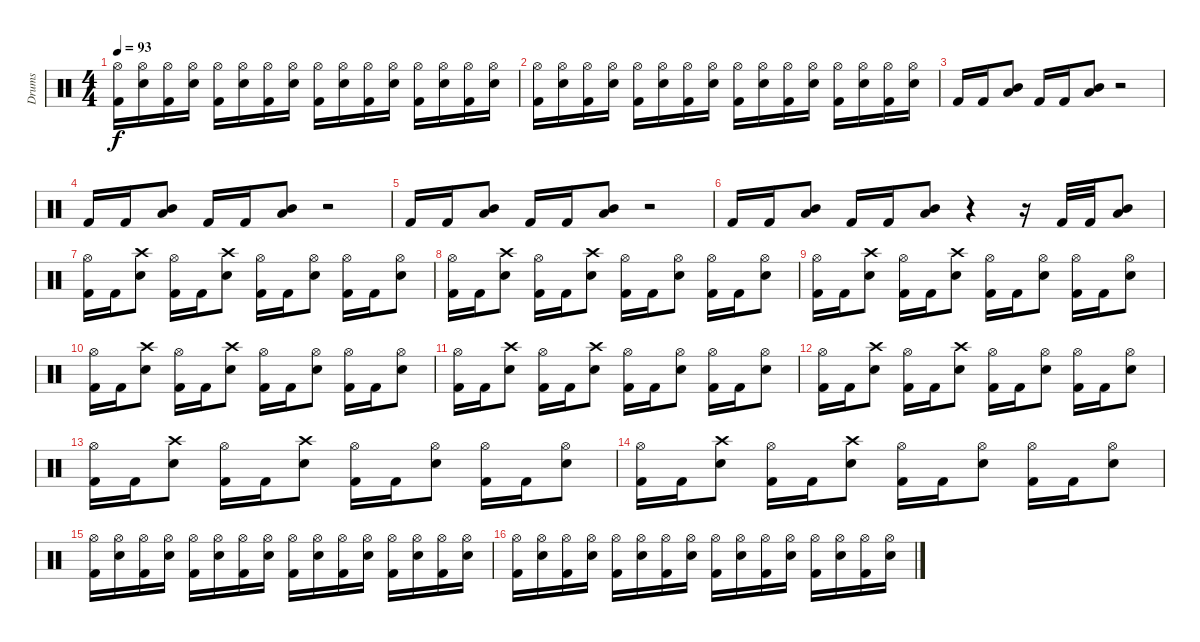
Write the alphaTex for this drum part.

\track ("Drums" "Drums") {instrument percussion}
\staff {score}
\articulation defaults
\ts (4 4)
\tempo 93
\clef neutral
\ks c
("Hi-Hat (open)" "Kick (hit) 2").16{dy f} ("Hi-Hat (open)" "Electric Snare (hit)").16 ("Hi-Hat (open)" "Kick (hit) 2").16 ("Hi-Hat (open)" "Electric Snare (hit)").16 ("Hi-Hat (open)" "Kick (hit) 2").16 ("Hi-Hat (open)" "Electric Snare (hit)").16 ("Hi-Hat (open)" "Kick (hit) 2").16 ("Hi-Hat (open)" "Electric Snare (hit)").16 ("Hi-Hat (open)" "Kick (hit) 2").16 ("Hi-Hat (open)" "Electric Snare (hit)").16 ("Hi-Hat (open)" "Kick (hit) 2").16 ("Hi-Hat (open)" "Electric Snare (hit)").16 ("Hi-Hat (open)" "Kick (hit) 2").16 ("Hi-Hat (open)" "Electric Snare (hit)").16 ("Hi-Hat (open)" "Kick (hit) 2").16 ("Hi-Hat (open)" "Electric Snare (hit)").16 |
("Hi-Hat (open)" "Kick (hit) 2").16 ("Hi-Hat (open)" "Electric Snare (hit)").16 ("Hi-Hat (open)" "Kick (hit) 2").16 ("Hi-Hat (open)" "Electric Snare (hit)").16 ("Hi-Hat (open)" "Kick (hit) 2").16 ("Hi-Hat (open)" "Electric Snare (hit)").16 ("Hi-Hat (open)" "Kick (hit) 2").16 ("Hi-Hat (open)" "Electric Snare (hit)").16 ("Hi-Hat (open)" "Kick (hit) 2").16 ("Hi-Hat (open)" "Electric Snare (hit)").16 ("Hi-Hat (open)" "Kick (hit) 2").16 ("Hi-Hat (open)" "Electric Snare (hit)").16 ("Hi-Hat (open)" "Kick (hit) 2").16 ("Hi-Hat (open)" "Electric Snare (hit)").16 ("Hi-Hat (open)" "Kick (hit) 2").16 ("Hi-Hat (open)" "Electric Snare (hit)").16 |
"Kick (hit) 2".16 "Kick (hit) 2".16 ("Mid Tom (hit)" "Low Tom (hit)").8 "Kick (hit) 2".16 "Kick (hit) 2".16 ("Mid Tom (hit)" "Low Tom (hit)").8 r.2 |
"Kick (hit) 2".16 "Kick (hit) 2".16 ("Mid Tom (hit)" "Low Tom (hit)").8 "Kick (hit) 2".16 "Kick (hit) 2".16 ("Mid Tom (hit)" "Low Tom (hit)").8 r.2 |
"Kick (hit) 2".16 "Kick (hit) 2".16 ("Mid Tom (hit)" "Low Tom (hit)").8 "Kick (hit) 2".16 "Kick (hit) 2".16 ("Mid Tom (hit)" "Low Tom (hit)").8 r.2 |
"Kick (hit) 2".16 "Kick (hit) 2".16 ("Mid Tom (hit)" "Low Tom (hit)").8 "Kick (hit) 2".16 "Kick (hit) 2".16 ("Mid Tom (hit)" "Low Tom (hit)").8 r.4 r.16 "Kick (hit) 2".32 "Kick (hit) 2".32 ("Mid Tom (hit)" "Low Tom (hit)").8 |
("Hi-Hat (open)" "Kick (hit) 2").16 "Kick (hit) 2".16 ("Crash high (hit)" "Electric Snare (hit)").8 ("Hi-Hat (open)" "Kick (hit) 2").16 "Kick (hit) 2".16 ("Crash high (hit)" "Electric Snare (hit)").8 ("Hi-Hat (open)" "Kick (hit) 2").16 "Kick (hit) 2".16 ("Hi-Hat (open)" "Electric Snare (hit)").8 ("Hi-Hat (open)" "Kick (hit) 2").16 "Kick (hit) 2".16 ("Hi-Hat (open)" "Electric Snare (hit)").8 |
("Hi-Hat (open)" "Kick (hit) 2").16 "Kick (hit) 2".16 ("Crash high (hit)" "Electric Snare (hit)").8 ("Hi-Hat (open)" "Kick (hit) 2").16 "Kick (hit) 2".16 ("Crash high (hit)" "Electric Snare (hit)").8 ("Hi-Hat (open)" "Kick (hit) 2").16 "Kick (hit) 2".16 ("Hi-Hat (open)" "Electric Snare (hit)").8 ("Hi-Hat (open)" "Kick (hit) 2").16 "Kick (hit) 2".16 ("Hi-Hat (open)" "Electric Snare (hit)").8 |
("Hi-Hat (open)" "Kick (hit) 2").16 "Kick (hit) 2".16 ("Crash high (hit)" "Electric Snare (hit)").8 ("Hi-Hat (open)" "Kick (hit) 2").16 "Kick (hit) 2".16 ("Crash high (hit)" "Electric Snare (hit)").8 ("Hi-Hat (open)" "Kick (hit) 2").16 "Kick (hit) 2".16 ("Hi-Hat (open)" "Electric Snare (hit)").8 ("Hi-Hat (open)" "Kick (hit) 2").16 "Kick (hit) 2".16 ("Hi-Hat (open)" "Electric Snare (hit)").8 |
("Hi-Hat (open)" "Kick (hit) 2").16 "Kick (hit) 2".16 ("Crash high (hit)" "Electric Snare (hit)").8 ("Hi-Hat (open)" "Kick (hit) 2").16 "Kick (hit) 2".16 ("Crash high (hit)" "Electric Snare (hit)").8 ("Hi-Hat (open)" "Kick (hit) 2").16 "Kick (hit) 2".16 ("Hi-Hat (open)" "Electric Snare (hit)").8 ("Hi-Hat (open)" "Kick (hit) 2").16 "Kick (hit) 2".16 ("Hi-Hat (open)" "Electric Snare (hit)").8 |
("Hi-Hat (open)" "Kick (hit) 2").16 "Kick (hit) 2".16 ("Crash high (hit)" "Electric Snare (hit)").8 ("Hi-Hat (open)" "Kick (hit) 2").16 "Kick (hit) 2".16 ("Crash high (hit)" "Electric Snare (hit)").8 ("Hi-Hat (open)" "Kick (hit) 2").16 "Kick (hit) 2".16 ("Hi-Hat (open)" "Electric Snare (hit)").8 ("Hi-Hat (open)" "Kick (hit) 2").16 "Kick (hit) 2".16 ("Hi-Hat (open)" "Electric Snare (hit)").8 |
("Hi-Hat (open)" "Kick (hit) 2").16 "Kick (hit) 2".16 ("Crash high (hit)" "Electric Snare (hit)").8 ("Hi-Hat (open)" "Kick (hit) 2").16 "Kick (hit) 2".16 ("Crash high (hit)" "Electric Snare (hit)").8 ("Hi-Hat (open)" "Kick (hit) 2").16 "Kick (hit) 2".16 ("Hi-Hat (open)" "Electric Snare (hit)").8 ("Hi-Hat (open)" "Kick (hit) 2").16 "Kick (hit) 2".16 ("Hi-Hat (open)" "Electric Snare (hit)").8 |
("Hi-Hat (open)" "Kick (hit) 2").16 "Kick (hit) 2".16 ("Crash high (hit)" "Electric Snare (hit)").8 ("Hi-Hat (open)" "Kick (hit) 2").16 "Kick (hit) 2".16 ("Crash high (hit)" "Electric Snare (hit)").8 ("Hi-Hat (open)" "Kick (hit) 2").16 "Kick (hit) 2".16 ("Hi-Hat (open)" "Electric Snare (hit)").8 ("Hi-Hat (open)" "Kick (hit) 2").16 "Kick (hit) 2".16 ("Hi-Hat (open)" "Electric Snare (hit)").8 |
("Hi-Hat (open)" "Kick (hit) 2").16 "Kick (hit) 2".16 ("Crash high (hit)" "Electric Snare (hit)").8 ("Hi-Hat (open)" "Kick (hit) 2").16 "Kick (hit) 2".16 ("Crash high (hit)" "Electric Snare (hit)").8 ("Hi-Hat (open)" "Kick (hit) 2").16 "Kick (hit) 2".16 ("Hi-Hat (open)" "Electric Snare (hit)").8 ("Hi-Hat (open)" "Kick (hit) 2").16 "Kick (hit) 2".16 ("Hi-Hat (open)" "Electric Snare (hit)").8 |
("Hi-Hat (open)" "Kick (hit) 2").16 ("Hi-Hat (open)" "Electric Snare (hit)").16 ("Hi-Hat (open)" "Kick (hit) 2").16 ("Hi-Hat (open)" "Electric Snare (hit)").16 ("Hi-Hat (open)" "Kick (hit) 2").16 ("Hi-Hat (open)" "Electric Snare (hit)").16 ("Hi-Hat (open)" "Kick (hit) 2").16 ("Hi-Hat (open)" "Electric Snare (hit)").16 ("Hi-Hat (open)" "Kick (hit) 2").16 ("Hi-Hat (open)" "Electric Snare (hit)").16 ("Hi-Hat (open)" "Kick (hit) 2").16 ("Hi-Hat (open)" "Electric Snare (hit)").16 ("Hi-Hat (open)" "Kick (hit) 2").16 ("Hi-Hat (open)" "Electric Snare (hit)").16 ("Hi-Hat (open)" "Kick (hit) 2").16 ("Hi-Hat (open)" "Electric Snare (hit)").16 |
("Hi-Hat (open)" "Kick (hit) 2").16 ("Hi-Hat (open)" "Electric Snare (hit)").16 ("Hi-Hat (open)" "Kick (hit) 2").16 ("Hi-Hat (open)" "Electric Snare (hit)").16 ("Hi-Hat (open)" "Kick (hit) 2").16 ("Hi-Hat (open)" "Electric Snare (hit)").16 ("Hi-Hat (open)" "Kick (hit) 2").16 ("Hi-Hat (open)" "Electric Snare (hit)").16 ("Hi-Hat (open)" "Kick (hit) 2").16 ("Hi-Hat (open)" "Electric Snare (hit)").16 ("Hi-Hat (open)" "Kick (hit) 2").16 ("Hi-Hat (open)" "Electric Snare (hit)").16 ("Hi-Hat (open)" "Kick (hit) 2").16 ("Hi-Hat (open)" "Electric Snare (hit)").16 ("Hi-Hat (open)" "Kick (hit) 2").16 ("Hi-Hat (open)" "Electric Snare (hit)").16
